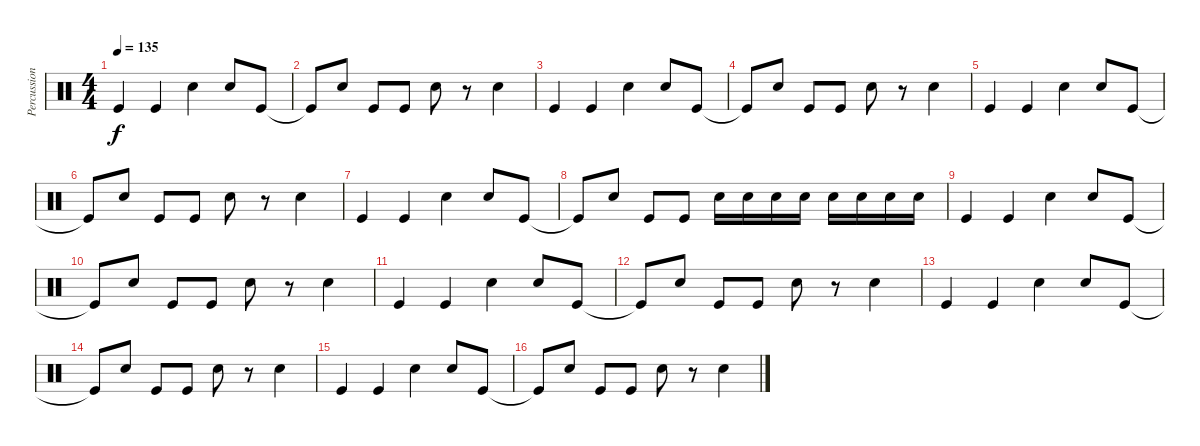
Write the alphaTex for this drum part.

\track ("Percussion" "Percussion") {instrument percussion}
\staff {score}
\articulation defaults
\ts (4 4)
\tempo 135
\clef neutral
\ks c "Kick (hit)".4{dy f} "Kick (hit)".4 "Snare (hit) 2".4 "Snare (hit) 2".8 "Kick (hit)".8
|
"Kick (hit)"{t}.8 "Snare (hit) 2".8 "Kick (hit)".8 "Kick (hit)".8 "Snare (hit) 2".8 r.8 "Snare (hit) 2".4 |
"Kick (hit)".4 "Kick (hit)".4 "Snare (hit) 2".4 "Snare (hit) 2".8 "Kick (hit)".8 |
"Kick (hit)"{t}.8 "Snare (hit) 2".8 "Kick (hit)".8 "Kick (hit)".8 "Snare (hit) 2".8 r.8 "Snare (hit) 2".4 |
"Kick (hit)".4 "Kick (hit)".4 "Snare (hit) 2".4 "Snare (hit) 2".8 "Kick (hit)".8 |
"Kick (hit)"{t}.8 "Snare (hit) 2".8 "Kick (hit)".8 "Kick (hit)".8 "Snare (hit) 2".8 r.8 "Snare (hit) 2".4 |
"Kick (hit)".4 "Kick (hit)".4 "Snare (hit) 2".4 "Snare (hit) 2".8 "Kick (hit)".8 |
"Kick (hit)"{t}.8 "Snare (hit) 2".8 "Kick (hit)".8 "Kick (hit)".8 "Snare (hit) 2".16 "Snare (hit) 2".16 "Snare (hit) 2".16 "Snare (hit) 2".16 "Snare (hit) 2".16 "Snare (hit) 2".16 "Snare (hit) 2".16 "Snare (hit) 2".16 |
"Kick (hit)".4 "Kick (hit)".4 "Snare (hit) 2".4 "Snare (hit) 2".8 "Kick (hit)".8 |
"Kick (hit)"{t}.8 "Snare (hit) 2".8 "Kick (hit)".8 "Kick (hit)".8 "Snare (hit) 2".8 r.8 "Snare (hit) 2".4 |
"Kick (hit)".4 "Kick (hit)".4 "Snare (hit) 2".4 "Snare (hit) 2".8 "Kick (hit)".8 |
"Kick (hit)"{t}.8 "Snare (hit) 2".8 "Kick (hit)".8 "Kick (hit)".8 "Snare (hit) 2".8 r.8 "Snare (hit) 2".4 |
"Kick (hit)".4 "Kick (hit)".4 "Snare (hit) 2".4 "Snare (hit) 2".8 "Kick (hit)".8 |
"Kick (hit)"{t}.8 "Snare (hit) 2".8 "Kick (hit)".8 "Kick (hit)".8 "Snare (hit) 2".8 r.8 "Snare (hit) 2".4 |
"Kick (hit)".4 "Kick (hit)".4 "Snare (hit) 2".4 "Snare (hit) 2".8 "Kick (hit)".8 |
"Kick (hit)"{t}.8 "Snare (hit) 2".8 "Kick (hit)".8 "Kick (hit)".8 "Snare (hit) 2".8 r.8 "Snare (hit) 2".4
